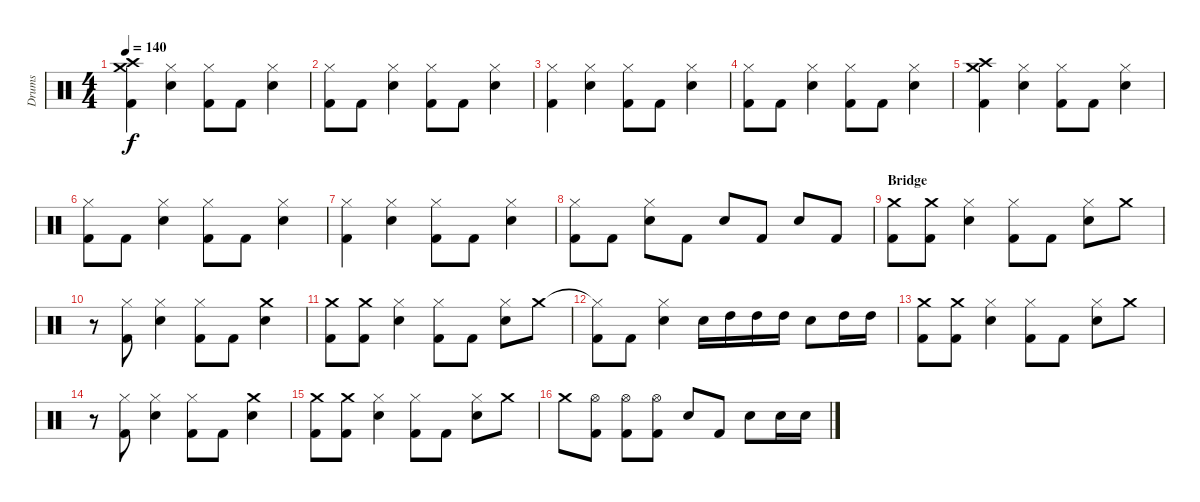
\track ("Drums" "Drums") {instrument percussion}
\staff {score}
\articulation defaults
\ts (4 4)
\tempo 140
\clef neutral
\ks c
("Crash medium (hit)" "Crash high (hit)" "Kick (hit) 2").4{dy f} ("Hi-Hat (closed)" "Snare (hit) 2").4 ("Hi-Hat (closed)" "Kick (hit) 2").8 "Kick (hit) 2".8 ("Hi-Hat (closed)" "Snare (hit) 2").4 |
("Hi-Hat (closed)" "Kick (hit) 2").8 "Kick (hit) 2".8 ("Hi-Hat (closed)" "Snare (hit) 2").4 ("Hi-Hat (closed)" "Kick (hit) 2").8 "Kick (hit) 2".8 ("Hi-Hat (closed)" "Snare (hit) 2").4 |
("Hi-Hat (closed)" "Kick (hit) 2").4 ("Hi-Hat (closed)" "Snare (hit) 2").4 ("Hi-Hat (closed)" "Kick (hit) 2").8 "Kick (hit) 2".8 ("Hi-Hat (closed)" "Snare (hit) 2").4 |
("Hi-Hat (closed)" "Kick (hit) 2").8 "Kick (hit) 2".8 ("Hi-Hat (closed)" "Snare (hit) 2").4 ("Hi-Hat (closed)" "Kick (hit) 2").8 "Kick (hit) 2".8 ("Hi-Hat (closed)" "Snare (hit) 2").4 |
("Crash medium (hit)" "Crash high (hit)" "Kick (hit) 2").4 ("Hi-Hat (closed)" "Snare (hit) 2").4 ("Hi-Hat (closed)" "Kick (hit) 2").8 "Kick (hit) 2".8 ("Hi-Hat (closed)" "Snare (hit) 2").4 |
("Hi-Hat (closed)" "Kick (hit) 2").8 "Kick (hit) 2".8 ("Hi-Hat (closed)" "Snare (hit) 2").4 ("Hi-Hat (closed)" "Kick (hit) 2").8 "Kick (hit) 2".8 ("Hi-Hat (closed)" "Snare (hit) 2").4 |
("Hi-Hat (closed)" "Kick (hit) 2").4 ("Hi-Hat (closed)" "Snare (hit) 2").4 ("Hi-Hat (closed)" "Kick (hit) 2").8 "Kick (hit) 2".8 ("Hi-Hat (closed)" "Snare (hit) 2").4 |
("Hi-Hat (closed)" "Kick (hit) 2").8 "Kick (hit) 2".8 ("Hi-Hat (closed)" "Snare (hit) 2").8 "Kick (hit) 2".8 "Snare (hit) 2".8 "Kick (hit) 2".8 "Snare (hit) 2".8 "Kick (hit) 2".8 |
\section ("" "Bridge")
("Crash medium (hit)" "Kick (hit) 2").8 ("Crash medium (hit)" "Kick (hit) 2").8 ("Hi-Hat (closed)" "Snare (hit) 2").4 ("Hi-Hat (closed)" "Kick (hit) 2").8 "Kick (hit) 2".8 ("Hi-Hat (closed)" "Snare (hit) 2").8 "Crash medium (hit)".8 |
r.8 ("Hi-Hat (closed)" "Kick (hit) 2").8 ("Hi-Hat (closed)" "Snare (hit) 2").4 ("Hi-Hat (closed)" "Kick (hit) 2").8 "Kick (hit) 2".8 ("Crash medium (hit)" "Snare (hit) 2").4 |
("Crash medium (hit)" "Kick (hit) 2").8 ("Crash medium (hit)" "Kick (hit) 2").8 ("Hi-Hat (closed)" "Snare (hit) 2").4 ("Hi-Hat (closed)" "Kick (hit) 2").8 "Kick (hit) 2".8 ("Hi-Hat (closed)" "Snare (hit) 2").8 "Crash medium (hit)".8 |
("Hi-Hat (closed)"{t} "Kick (hit) 2").8 "Kick (hit) 2".8 ("Hi-Hat (closed)" "Snare (hit) 2").4 "Snare (hit) 2".16 "High Tom (hit)".16 "High Tom (hit)".16 "High Tom (hit)".16 "Snare (hit) 2".8 "High Tom (hit)".16 "High Tom (hit)".16 |
("Crash medium (hit)" "Kick (hit) 2").8 ("Crash medium (hit)" "Kick (hit) 2").8 ("Hi-Hat (closed)" "Snare (hit) 2").4 ("Hi-Hat (closed)" "Kick (hit) 2").8 "Kick (hit) 2".8 ("Hi-Hat (closed)" "Snare (hit) 2").8 "Crash medium (hit)".8 |
r.8 ("Hi-Hat (closed)" "Kick (hit) 2").8 ("Hi-Hat (closed)" "Snare (hit) 2").4 ("Hi-Hat (closed)" "Kick (hit) 2").8 "Kick (hit) 2".8 ("Crash medium (hit)" "Snare (hit) 2").4 |
("Crash medium (hit)" "Kick (hit) 2").8 ("Crash medium (hit)" "Kick (hit) 2").8 ("Hi-Hat (closed)" "Snare (hit) 2").4 ("Hi-Hat (closed)" "Kick (hit) 2").8 "Kick (hit) 2".8 ("Hi-Hat (closed)" "Snare (hit) 2").8 "Crash medium (hit)".8 |
"Crash medium (hit)".8 ("Hi-Hat (open)" "Kick (hit) 2").8 ("Hi-Hat (open)" "Kick (hit) 2").8 ("Hi-Hat (open)" "Kick (hit) 2").8 "Snare (hit) 2".8 "Kick (hit) 2".8 "Snare (hit) 2".8 "Snare (hit) 2".16 "Snare (hit) 2".16
